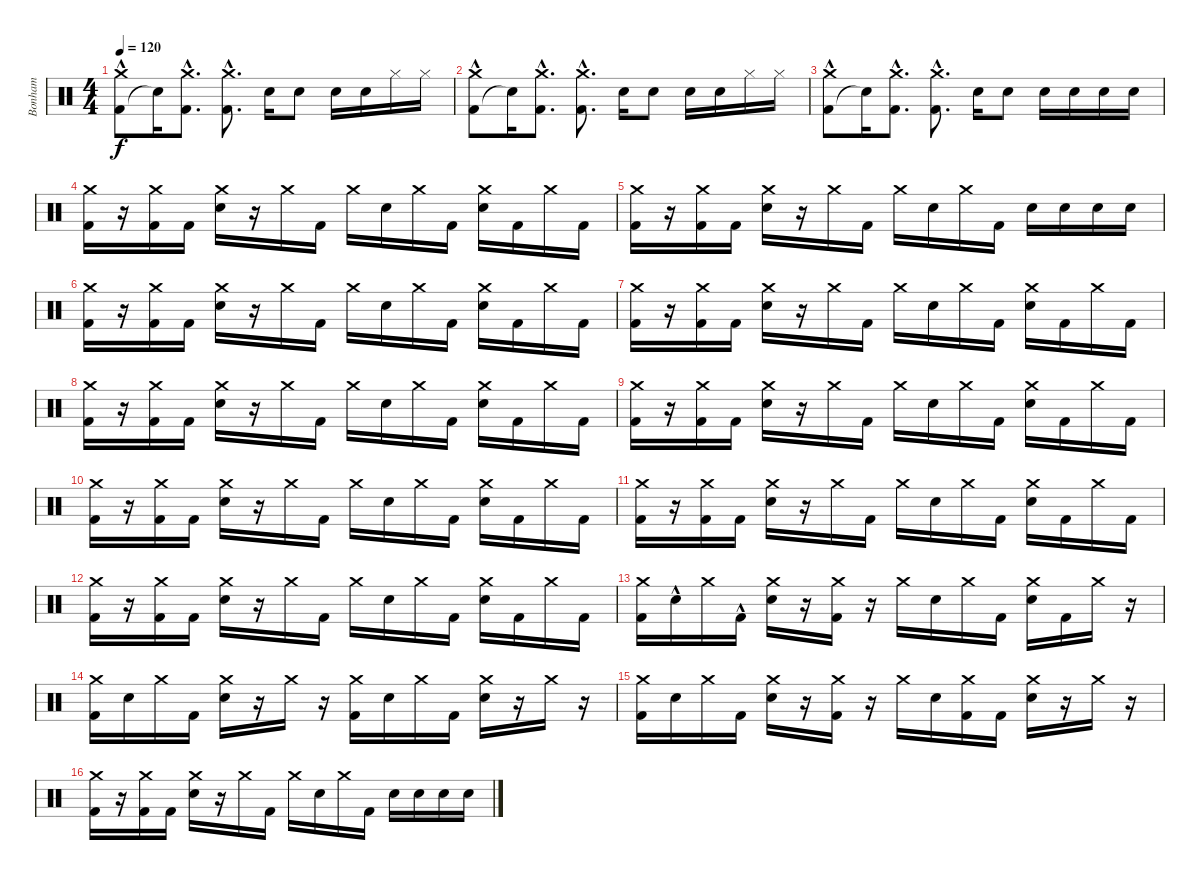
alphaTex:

\track ("Bonham" "Bonham") {instrument percussion}
\staff {score}
\articulation defaults
\ts (4 4)
\tempo 120
\clef neutral
\ks c
("Kick (hit) 2" "Crash medium (hit)"{hac}).8{dy f} "Snare (hit)"{t}.16 ("Kick (hit) 2"{hac} "Crash medium (hit)").8{d} ("Kick (hit) 2"{hac} "Crash medium (hit)").8{d} "Electric Snare (hit)".16 "Electric Snare (hit)".8 "Electric Snare (hit)".16 "Electric Snare (hit)".16 "Hi-Hat (closed)".16 "Hi-Hat (closed)".16 |
("Kick (hit) 2" "Crash medium (hit)"{hac}).8 "Snare (hit)"{t}.16 ("Kick (hit) 2"{hac} "Crash medium (hit)").8{d} ("Kick (hit) 2"{hac} "Crash medium (hit)").8{d} "Electric Snare (hit)".16 "Electric Snare (hit)".8 "Electric Snare (hit)".16 "Electric Snare (hit)".16 "Hi-Hat (closed)".16 "Hi-Hat (closed)".16 |
("Kick (hit) 2" "Crash medium (hit)"{hac}).8 "Snare (hit)"{t}.16 ("Kick (hit) 2"{hac} "Crash medium (hit)").8{d} ("Kick (hit) 2"{hac} "Crash medium (hit)").8{d} "Electric Snare (hit)".16 "Electric Snare (hit)".8 "Electric Snare (hit)".16 "Electric Snare (hit)".16 "Electric Snare (hit)".16 "Electric Snare (hit)".16 |
("Crash medium (hit)" "Kick (hit) 2").16 r.16 ("Crash medium (hit)" "Kick (hit) 2").16 "Kick (hit) 2".16 ("Crash medium (hit)" "Electric Snare (hit)").16 r.16 "Crash medium (hit)".16 "Kick (hit) 2".16 "Crash medium (hit)".16 "Electric Snare (hit)".16 "Crash medium (hit)".16 "Kick (hit) 2".16 ("Crash medium (hit)" "Electric Snare (hit)").16 "Kick (hit) 2".16 "Crash medium (hit)".16 "Kick (hit) 2".16 |
("Kick (hit) 2" "Crash medium (hit)").16 r.16 ("Crash medium (hit)" "Kick (hit) 2").16 "Kick (hit) 2".16 ("Crash medium (hit)" "Electric Snare (hit)").16 r.16 "Crash medium (hit)".16 "Kick (hit) 2".16 "Crash medium (hit)".16 "Electric Snare (hit)".16 "Crash medium (hit)".16 "Kick (hit) 2".16 "Electric Snare (hit)".16 "Electric Snare (hit)".16 "Electric Snare (hit)".16 "Electric Snare (hit)".16 |
("Crash medium (hit)" "Kick (hit) 2").16 r.16 ("Crash medium (hit)" "Kick (hit) 2").16 "Kick (hit) 2".16 ("Crash medium (hit)" "Electric Snare (hit)").16 r.16 "Crash medium (hit)".16 "Kick (hit) 2".16 "Crash medium (hit)".16 "Electric Snare (hit)".16 "Crash medium (hit)".16 "Kick (hit) 2".16 ("Crash medium (hit)" "Electric Snare (hit)").16 "Kick (hit) 2".16 "Crash medium (hit)".16 "Kick (hit) 2".16 |
("Crash medium (hit)" "Kick (hit) 2").16 r.16 ("Crash medium (hit)" "Kick (hit) 2").16 "Kick (hit) 2".16 ("Crash medium (hit)" "Electric Snare (hit)").16 r.16 "Crash medium (hit)".16 "Kick (hit) 2".16 "Crash medium (hit)".16 "Electric Snare (hit)".16 "Crash medium (hit)".16 "Kick (hit) 2".16 ("Crash medium (hit)" "Electric Snare (hit)").16 "Kick (hit) 2".16 "Crash medium (hit)".16 "Kick (hit) 2".16 |
("Crash medium (hit)" "Kick (hit) 2").16 r.16 ("Crash medium (hit)" "Kick (hit) 2").16 "Kick (hit) 2".16 ("Crash medium (hit)" "Electric Snare (hit)").16 r.16 "Crash medium (hit)".16 "Kick (hit) 2".16 "Crash medium (hit)".16 "Electric Snare (hit)".16 "Crash medium (hit)".16 "Kick (hit) 2".16 ("Crash medium (hit)" "Electric Snare (hit)").16 "Kick (hit) 2".16 "Crash medium (hit)".16 "Kick (hit) 2".16 |
("Crash medium (hit)" "Kick (hit) 2").16 r.16 ("Crash medium (hit)" "Kick (hit) 2").16 "Kick (hit) 2".16 ("Crash medium (hit)" "Electric Snare (hit)").16 r.16 "Crash medium (hit)".16 "Kick (hit) 2".16 "Crash medium (hit)".16 "Electric Snare (hit)".16 "Crash medium (hit)".16 "Kick (hit) 2".16 ("Crash medium (hit)" "Electric Snare (hit)").16 "Kick (hit) 2".16 "Crash medium (hit)".16 "Kick (hit) 2".16 |
("Crash medium (hit)" "Kick (hit) 2").16 r.16 ("Crash medium (hit)" "Kick (hit) 2").16 "Kick (hit) 2".16 ("Crash medium (hit)" "Electric Snare (hit)").16 r.16 "Crash medium (hit)".16 "Kick (hit) 2".16 "Crash medium (hit)".16 "Electric Snare (hit)".16 "Crash medium (hit)".16 "Kick (hit) 2".16 ("Crash medium (hit)" "Electric Snare (hit)").16 "Kick (hit) 2".16 "Crash medium (hit)".16 "Kick (hit) 2".16 |
("Crash medium (hit)" "Kick (hit) 2").16 r.16 ("Crash medium (hit)" "Kick (hit) 2").16 "Kick (hit) 2".16 ("Crash medium (hit)" "Electric Snare (hit)").16 r.16 "Crash medium (hit)".16 "Kick (hit) 2".16 "Crash medium (hit)".16 "Electric Snare (hit)".16 "Crash medium (hit)".16 "Kick (hit) 2".16 ("Crash medium (hit)" "Electric Snare (hit)").16 "Kick (hit) 2".16 "Crash medium (hit)".16 "Kick (hit) 2".16 |
("Crash medium (hit)" "Kick (hit) 2").16 r.16 ("Crash medium (hit)" "Kick (hit) 2").16 "Kick (hit) 2".16 ("Crash medium (hit)" "Electric Snare (hit)").16 r.16 "Crash medium (hit)".16 "Kick (hit) 2".16 "Crash medium (hit)".16 "Electric Snare (hit)".16 "Crash medium (hit)".16 "Kick (hit) 2".16 ("Crash medium (hit)" "Electric Snare (hit)").16 "Kick (hit) 2".16 "Crash medium (hit)".16 "Kick (hit) 2".16 |
("Kick (hit) 2" "Crash medium (hit)").16 "Electric Snare (hit)"{hac}.16 "Crash medium (hit)".16 "Kick (hit) 2"{hac}.16 ("Crash medium (hit)" "Electric Snare (hit)").16 r.16 ("Crash medium (hit)" "Kick (hit) 2").16 r.16 "Crash medium (hit)".16 "Electric Snare (hit)".16 "Crash medium (hit)".16 "Kick (hit) 2".16 ("Crash medium (hit)" "Electric Snare (hit)").16 "Kick (hit) 2".16 "Crash medium (hit)".16 r.16 |
("Crash medium (hit)" "Kick (hit) 2").16 "Electric Snare (hit)".16 "Crash medium (hit)".16 "Kick (hit) 2".16 ("Crash medium (hit)" "Electric Snare (hit)").16 r.16 "Crash medium (hit)".16 r.16 ("Crash medium (hit)" "Kick (hit) 2").16 "Electric Snare (hit)".16 "Crash medium (hit)".16 "Kick (hit) 2".16 ("Crash medium (hit)" "Electric Snare (hit)").16 r.16 "Crash medium (hit)".16 r.16 |
("Kick (hit) 2" "Crash medium (hit)").16 "Electric Snare (hit)".16 "Crash medium (hit)".16 "Kick (hit) 2".16 ("Crash medium (hit)" "Electric Snare (hit)").16 r.16 ("Crash medium (hit)" "Kick (hit) 2").16 r.16 "Crash medium (hit)".16 "Electric Snare (hit)".16 ("Crash medium (hit)" "Kick (hit) 2").16 "Kick (hit) 2".16 ("Crash medium (hit)" "Electric Snare (hit)").16 r.16 "Crash medium (hit)".16 r.16 |
("Crash medium (hit)" "Kick (hit) 2").16 r.16 ("Crash medium (hit)" "Kick (hit) 2").16 "Kick (hit) 2".16 ("Crash medium (hit)" "Electric Snare (hit)").16 r.16 "Crash medium (hit)".16 "Kick (hit) 2".16 "Crash medium (hit)".16 "Electric Snare (hit)".16 "Crash medium (hit)".16 "Kick (hit) 2".16 "Electric Snare (hit)".16 "Electric Snare (hit)".16 "Electric Snare (hit)".16 "Electric Snare (hit)".16
